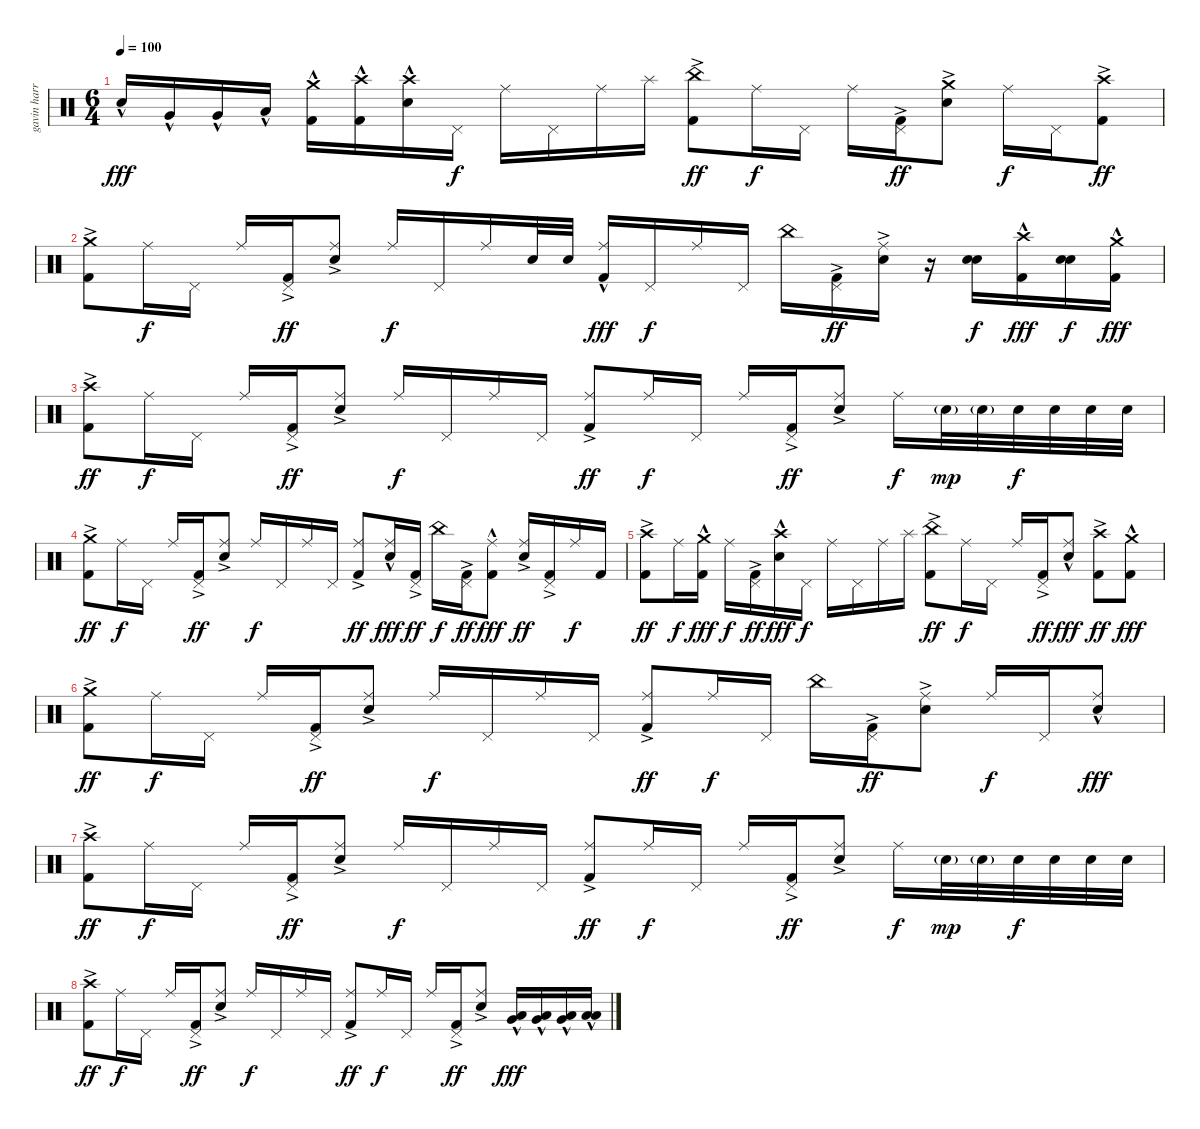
\track ("gavin harrison" "gavin harr") {instrument percussion}
\staff {score}
\articulation defaults
\ts (6 4)
\tempo 100
\clef neutral
\ks c "Electric Snare (hit)"{hac}.16{dy fff} "Very Low Tom (hit)"{hac}.16 "Very Low Tom (hit)"{hac}.16 "Low Floor Tom (hit)"{hac}.16
("Crash medium (hit)" "Kick (hit) 2"{hac}).16 ("Crash high (hit)" "Kick (hit) 2"{hac}).16 ("Crash high (hit)" "Electric Snare (hit)"{hac}).16 "Pedal Hi-Hat (hit)".16{dy f} "Ride (middle)".16 "Pedal Hi-Hat (hit)".16 "Ride (middle)".16 "Splash (hit)".16 ("China (hit)" "Kick (hit) 2"{ac}).8{dy ff} "Ride (middle)".16{dy f} "Pedal Hi-Hat (hit)".16 "Ride (middle)".16 ("Pedal Hi-Hat (hit)" "Kick (hit) 2"{ac}).16{dy ff} ("Crash medium (hit)" "Electric Snare (hit)"{ac}).8 "Ride (middle)".16{dy f} "Pedal Hi-Hat (hit)".16 ("Crash high (hit)" "Kick (hit) 2"{ac}).8{dy ff} |
("Crash medium (hit)" "Kick (hit) 2"{ac}).8 "Ride (middle)".16{dy f} "Pedal Hi-Hat (hit)".16 "Ride (middle)".16 ("Pedal Hi-Hat (hit)" "Kick (hit) 2"{ac}).16{dy ff} ("Ride (middle)" "Electric Snare (hit)"{ac}).8 "Ride (middle)".16{dy f} "Pedal Hi-Hat (hit)".16 "Ride (middle)".16 "Electric Snare (hit)".32 "Electric Snare (hit)".32 ("Ride (middle)" "Kick (hit) 2"{hac}).16{dy fff} "Pedal Hi-Hat (hit)".16{dy f} "Ride (middle)".16 "Pedal Hi-Hat (hit)".16 "China (hit)".16 ("Pedal Hi-Hat (hit)" "Kick (hit) 2"{ac}).16{dy ff} ("Ride (middle)" "Electric Snare (hit)"{ac}).16 r.16 ("Electric Snare (hit)" "Electric Snare (hit)").16{dy f} ("Crash high (hit)" "Kick (hit) 2"{hac}).16{dy fff} ("Electric Snare (hit)" "Electric Snare (hit)").16{dy f} ("Crash medium (hit)" "Kick (hit) 2"{hac}).16{dy fff} |
("Crash high (hit)" "Kick (hit) 2"{ac}).8{dy ff} "Ride (middle)".16{dy f} "Pedal Hi-Hat (hit)".16 "Ride (middle)".16 ("Pedal Hi-Hat (hit)" "Kick (hit) 2"{ac}).16{dy ff} ("Ride (middle)" "Electric Snare (hit)"{ac}).8 "Ride (middle)".16{dy f} "Pedal Hi-Hat (hit)".16 "Ride (middle)".16 "Pedal Hi-Hat (hit)".16 ("Ride (middle)" "Kick (hit) 2"{ac}).8{dy ff} "Ride (middle)".16{dy f} "Pedal Hi-Hat (hit)".16 "Ride (middle)".16 ("Pedal Hi-Hat (hit)" "Kick (hit) 2"{ac}).16{dy ff} ("Ride (middle)" "Electric Snare (hit)"{ac}).8 "Ride (middle)".16{dy f} "Electric Snare (hit)"{g}.32{dy mp} "Electric Snare (hit)"{g}.32 "Electric Snare (hit)".32{dy f} "Electric Snare (hit)".32 "Electric Snare (hit)".32 "Electric Snare (hit)".32 |
("Crash medium (hit)" "Kick (hit) 2"{ac}).8{dy ff} "Ride (middle)".16{dy f} "Pedal Hi-Hat (hit)".16 "Ride (middle)".16 ("Pedal Hi-Hat (hit)" "Kick (hit) 2"{ac}).16{dy ff} ("Ride (middle)" "Electric Snare (hit)"{ac}).8 "Ride (middle)".16{dy f} "Pedal Hi-Hat (hit)".16 "Ride (middle)".16 "Pedal Hi-Hat (hit)".16 ("Ride (middle)" "Kick (hit) 2"{ac}).8{dy ff} ("Ride (middle)" "Electric Snare (hit)"{hac}).16{dy fff} ("Pedal Hi-Hat (hit)" "Kick (hit) 2"{ac}).16{dy ff} "China (hit)".16{dy f} ("Pedal Hi-Hat (hit)" "Kick (hit) 2"{ac}).16{dy ff} ("Ride (middle)" "Kick (hit) 2"{hac}).8{dy fff} ("Ride (middle)" "Electric Snare (hit)"{ac}).16{dy ff} ("Pedal Hi-Hat (hit)" "Kick (hit) 2"{ac}).16 "Ride (middle)".16{dy f} "Kick (hit) 2".16 |
("Crash high (hit)" "Kick (hit) 2"{ac}).8{dy ff} "Ride (middle)".16{dy f} ("Crash medium (hit)" "Kick (hit) 2"{hac}).16{dy fff} "Ride (middle)".16{dy f} ("Pedal Hi-Hat (hit)" "Kick (hit) 2"{ac}).16{dy ff} ("Crash high (hit)" "Electric Snare (hit)"{hac}).16{dy fff} "Pedal Hi-Hat (hit)".16{dy f} "Ride (middle)".16 "Pedal Hi-Hat (hit)".16 "Ride (middle)".16 "Splash (hit)".16 ("China (hit)" "Kick (hit) 2"{ac}).8{dy ff} "Ride (middle)".16{dy f} "Pedal Hi-Hat (hit)".16 "Ride (middle)".16 ("Pedal Hi-Hat (hit)" "Kick (hit) 2"{ac}).16{dy ff} ("Ride (middle)" "Electric Snare (hit)"{hac}).8{dy fff} ("Crash high (hit)" "Kick (hit) 2"{ac}).8{dy ff} ("Crash medium (hit)" "Kick (hit) 2"{hac}).8{dy fff} |
("Crash medium (hit)" "Kick (hit) 2"{ac}).8{dy ff} "Ride (middle)".16{dy f} "Pedal Hi-Hat (hit)".16 "Ride (middle)".16 ("Pedal Hi-Hat (hit)" "Kick (hit) 2"{ac}).16{dy ff} ("Ride (middle)" "Electric Snare (hit)"{ac}).8 "Ride (middle)".16{dy f} "Pedal Hi-Hat (hit)".16 "Ride (middle)".16 "Pedal Hi-Hat (hit)".16 ("Ride (middle)" "Kick (hit) 2"{ac}).8{dy ff} "Ride (middle)".16{dy f} "Pedal Hi-Hat (hit)".16 "China (hit)".16 ("Pedal Hi-Hat (hit)" "Kick (hit) 2"{ac}).16{dy ff} ("Ride (middle)" "Electric Snare (hit)"{ac}).8 "Ride (middle)".16{dy f} "Pedal Hi-Hat (hit)".16 ("Ride (middle)" "Electric Snare (hit)"{hac}).8{dy fff} |
("Crash high (hit)" "Kick (hit) 2"{ac}).8{dy ff} "Ride (middle)".16{dy f} "Pedal Hi-Hat (hit)".16 "Ride (middle)".16 ("Pedal Hi-Hat (hit)" "Kick (hit) 2"{ac}).16{dy ff} ("Ride (middle)" "Electric Snare (hit)"{ac}).8 "Ride (middle)".16{dy f} "Pedal Hi-Hat (hit)".16 "Ride (middle)".16 "Pedal Hi-Hat (hit)".16 ("Ride (middle)" "Kick (hit) 2"{ac}).8{dy ff} "Ride (middle)".16{dy f} "Pedal Hi-Hat (hit)".16 "Ride (middle)".16 ("Pedal Hi-Hat (hit)" "Kick (hit) 2"{ac}).16{dy ff} ("Ride (middle)" "Electric Snare (hit)"{ac}).8 "Ride (middle)".16{dy f} "Electric Snare (hit)"{g}.32{dy mp} "Electric Snare (hit)"{g}.32 "Electric Snare (hit)".32{dy f} "Electric Snare (hit)".32 "Electric Snare (hit)".32 "Electric Snare (hit)".32 |
("Crash high (hit)" "Kick (hit) 2"{ac}).8{dy ff} "Ride (middle)".16{dy f} "Pedal Hi-Hat (hit)".16 "Ride (middle)".16 ("Pedal Hi-Hat (hit)" "Kick (hit) 2"{ac}).16{dy ff} ("Ride (middle)" "Electric Snare (hit)"{ac}).8 "Ride (middle)".16{dy f} "Pedal Hi-Hat (hit)".16 "Ride (middle)".16 "Pedal Hi-Hat (hit)".16 ("Ride (middle)" "Kick (hit) 2"{ac}).8{dy ff} "Ride (middle)".16{dy f} "Pedal Hi-Hat (hit)".16 "Ride (middle)".16 ("Pedal Hi-Hat (hit)" "Kick (hit) 2"{ac}).16{dy ff} ("Ride (middle)" "Electric Snare (hit)"{ac}).8 ("Low Floor Tom (hit)"{hac} "Very Low Tom (hit)"{hac}).16{dy fff} ("Low Floor Tom (hit)"{hac} "Very Low Tom (hit)"{hac}).16 ("Low Floor Tom (hit)"{hac} "Very Low Tom (hit)"{hac}).16 ("Low Floor Tom (hit)"{hac} "Low Floor Tom (hit)"{hac}).16
